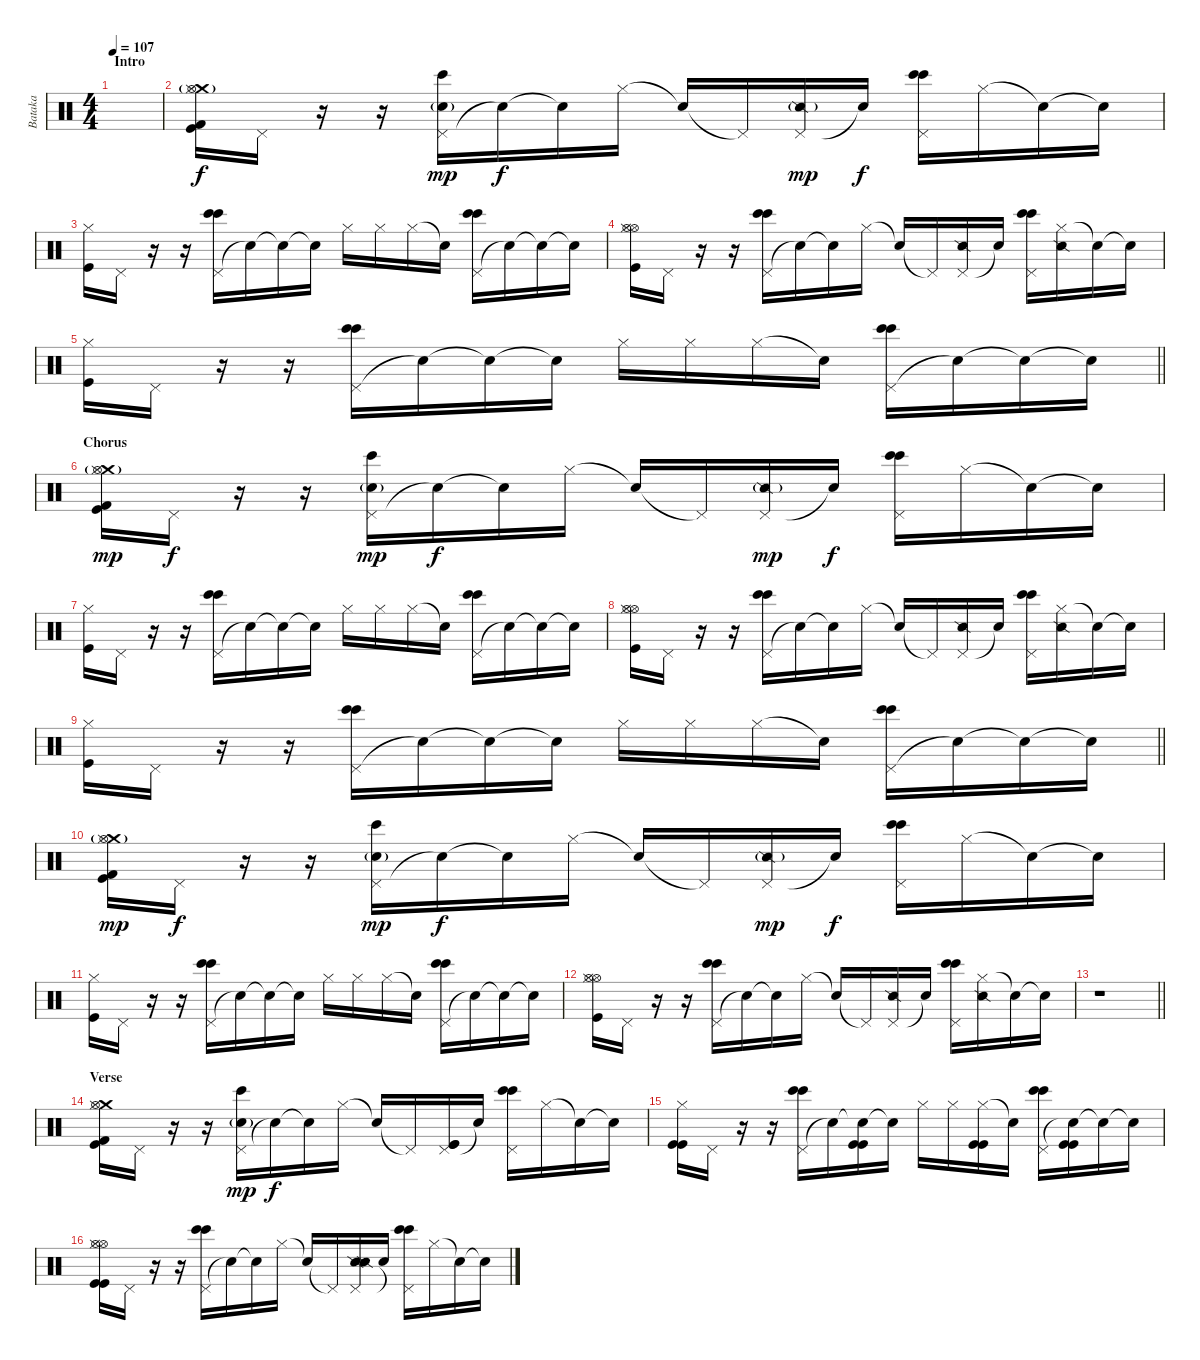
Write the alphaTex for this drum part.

\track ("Bataka" "Bataka") {instrument percussion}
\staff {score}
\articulation defaults
\ts (4 4)
\section ("" "Intro")
\tempo 107
\clef neutral
\ks c
|
("Crash medium (hit)"{g} "Hi-Hat (open)" "Hi-Hat (closed)" "Kick (hit)" "Kick (hit) 2").16 "Pedal Hi-Hat (hit)".16{dy f} r.16 r.16 ("Pedal Hi-Hat (hit)" "Bongo High (hit)" "Electric Snare (hit)"{g}).16{dy mp} "Snare (hit)"{t}.16{dy f} "Snare (hit)"{t}.16 "Hi-Hat (closed)".16 "Snare (hit)"{t}.16 "Pedal Hi-Hat (hit)"{t}.16 ("Pedal Hi-Hat (hit)" "Snare (side stick) 2"{g}).16{dy mp} "Snare (hit)"{t}.16{dy f} ("Pedal Hi-Hat (hit)" "Bongo High (hit)" "Bongo High (hit)").16 "Hi-Hat (closed)".16 "Snare (hit)"{t}.16 "Snare (hit)"{t}.16 |
("Hi-Hat (closed)" "Kick (hit)").16 "Pedal Hi-Hat (hit)".16 r.16 r.16 ("Pedal Hi-Hat (hit)" "Bongo High (hit)" "Bongo High (hit)").16 "Snare (hit)"{t}.16 "Snare (hit)"{t}.16 "Snare (hit)"{t}.16 "Hi-Hat (closed)".16 "Hi-Hat (closed)".16 "Hi-Hat (closed)".16 "Snare (hit)"{t}.16 ("Pedal Hi-Hat (hit)" "Bongo High (hit)" "Bongo High (hit)").16 "Snare (hit)"{t}.16 "Snare (hit)"{t}.16 "Snare (hit)"{t}.16 |
("Hi-Hat (open)" "Hi-Hat (open)" "Hi-Hat (closed)" "Kick (hit)").16 "Pedal Hi-Hat (hit)".16 r.16 r.16 ("Pedal Hi-Hat (hit)" "Bongo High (hit)" "Bongo High (hit)").16 "Snare (hit)"{t}.16 "Snare (hit)"{t}.16 "Hi-Hat (closed)".16 "Snare (hit)"{t}.16 "Pedal Hi-Hat (hit)"{t}.16 ("Pedal Hi-Hat (hit)" "Snare (side stick) 2").16 "Snare (hit)"{t}.16 ("Pedal Hi-Hat (hit)" "Bongo High (hit)" "Bongo High (hit)").16 ("Hi-Hat (closed)" "Snare (side stick) 2").16 "Snare (hit)"{t}.16 "Snare (hit)"{t}.16 |
\barLineRight lightlight
("Hi-Hat (closed)" "Kick (hit)").16 "Pedal Hi-Hat (hit)".16 r.16 r.16 ("Pedal Hi-Hat (hit)" "Bongo High (hit)" "Bongo High (hit)").16 "Snare (hit)"{t}.16 "Snare (hit)"{t}.16 "Snare (hit)"{t}.16 "Hi-Hat (closed)".16 "Hi-Hat (closed)".16 "Hi-Hat (closed)".16 "Snare (hit)"{t}.16 ("Pedal Hi-Hat (hit)" "Bongo High (hit)" "Bongo High (hit)").16 "Snare (hit)"{t}.16 "Snare (hit)"{t}.16 "Snare (hit)"{t}.16 |
\section ("" "Chorus")
("Crash medium (hit)"{g} "Hi-Hat (open)" "Hi-Hat (closed)" "Kick (hit)" "Kick (hit) 2").16{dy mp} "Pedal Hi-Hat (hit)".16{dy f} r.16 r.16 ("Pedal Hi-Hat (hit)" "Bongo High (hit)" "Electric Snare (hit)"{g}).16{dy mp} "Snare (hit)"{t}.16{dy f} "Snare (hit)"{t}.16 "Hi-Hat (closed)".16 "Snare (hit)"{t}.16 "Pedal Hi-Hat (hit)"{t}.16 ("Pedal Hi-Hat (hit)" "Snare (side stick) 2"{g}).16{dy mp} "Snare (hit)"{t}.16{dy f} ("Pedal Hi-Hat (hit)" "Bongo High (hit)" "Bongo High (hit)").16 "Hi-Hat (closed)".16 "Snare (hit)"{t}.16 "Snare (hit)"{t}.16 |
("Hi-Hat (closed)" "Kick (hit)").16 "Pedal Hi-Hat (hit)".16 r.16 r.16 ("Pedal Hi-Hat (hit)" "Bongo High (hit)" "Bongo High (hit)").16 "Snare (hit)"{t}.16 "Snare (hit)"{t}.16 "Snare (hit)"{t}.16 "Hi-Hat (closed)".16 "Hi-Hat (closed)".16 "Hi-Hat (closed)".16 "Snare (hit)"{t}.16 ("Pedal Hi-Hat (hit)" "Bongo High (hit)" "Bongo High (hit)").16 "Snare (hit)"{t}.16 "Snare (hit)"{t}.16 "Snare (hit)"{t}.16 |
("Hi-Hat (open)" "Hi-Hat (open)" "Hi-Hat (closed)" "Kick (hit)").16 "Pedal Hi-Hat (hit)".16 r.16 r.16 ("Pedal Hi-Hat (hit)" "Bongo High (hit)" "Bongo High (hit)").16 "Snare (hit)"{t}.16 "Snare (hit)"{t}.16 "Hi-Hat (closed)".16 "Snare (hit)"{t}.16 "Pedal Hi-Hat (hit)"{t}.16 ("Pedal Hi-Hat (hit)" "Snare (side stick) 2").16 "Snare (hit)"{t}.16 ("Pedal Hi-Hat (hit)" "Bongo High (hit)" "Bongo High (hit)").16 ("Hi-Hat (closed)" "Snare (side stick) 2").16 "Snare (hit)"{t}.16 "Snare (hit)"{t}.16 |
\barLineRight lightlight
("Hi-Hat (closed)" "Kick (hit)").16 "Pedal Hi-Hat (hit)".16 r.16 r.16 ("Pedal Hi-Hat (hit)" "Bongo High (hit)" "Bongo High (hit)").16 "Snare (hit)"{t}.16 "Snare (hit)"{t}.16 "Snare (hit)"{t}.16 "Hi-Hat (closed)".16 "Hi-Hat (closed)".16 "Hi-Hat (closed)".16 "Snare (hit)"{t}.16 ("Pedal Hi-Hat (hit)" "Bongo High (hit)" "Bongo High (hit)").16 "Snare (hit)"{t}.16 "Snare (hit)"{t}.16 "Snare (hit)"{t}.16 |
("Crash medium (hit)"{g} "Hi-Hat (open)" "Hi-Hat (closed)" "Kick (hit)" "Kick (hit) 2").16{dy mp} "Pedal Hi-Hat (hit)".16{dy f} r.16 r.16 ("Pedal Hi-Hat (hit)" "Bongo High (hit)" "Electric Snare (hit)"{g}).16{dy mp} "Snare (hit)"{t}.16{dy f} "Snare (hit)"{t}.16 "Hi-Hat (closed)".16 "Snare (hit)"{t}.16 "Pedal Hi-Hat (hit)"{t}.16 ("Pedal Hi-Hat (hit)" "Snare (side stick) 2"{g}).16{dy mp} "Snare (hit)"{t}.16{dy f} ("Pedal Hi-Hat (hit)" "Bongo High (hit)" "Bongo High (hit)").16 "Hi-Hat (closed)".16 "Snare (hit)"{t}.16 "Snare (hit)"{t}.16 |
("Hi-Hat (closed)" "Kick (hit)").16 "Pedal Hi-Hat (hit)".16 r.16 r.16 ("Pedal Hi-Hat (hit)" "Bongo High (hit)" "Bongo High (hit)").16 "Snare (hit)"{t}.16 "Snare (hit)"{t}.16 "Snare (hit)"{t}.16 "Hi-Hat (closed)".16 "Hi-Hat (closed)".16 "Hi-Hat (closed)".16 "Snare (hit)"{t}.16 ("Pedal Hi-Hat (hit)" "Bongo High (hit)" "Bongo High (hit)").16 "Snare (hit)"{t}.16 "Snare (hit)"{t}.16 "Snare (hit)"{t}.16 |
("Hi-Hat (open)" "Hi-Hat (open)" "Hi-Hat (closed)" "Kick (hit)").16 "Pedal Hi-Hat (hit)".16 r.16 r.16 ("Pedal Hi-Hat (hit)" "Bongo High (hit)" "Bongo High (hit)").16 "Snare (hit)"{t}.16 "Snare (hit)"{t}.16 "Hi-Hat (closed)".16 "Snare (hit)"{t}.16 "Pedal Hi-Hat (hit)"{t}.16 ("Pedal Hi-Hat (hit)" "Snare (side stick) 2").16 "Snare (hit)"{t}.16 ("Pedal Hi-Hat (hit)" "Bongo High (hit)" "Bongo High (hit)").16 ("Hi-Hat (closed)" "Snare (side stick) 2").16 "Snare (hit)"{t}.16 "Snare (hit)"{t}.16 |
\barLineRight lightlight
r.1 |
\section ("" "Verse")
("Crash medium (hit)" "Hi-Hat (open)" "Hi-Hat (closed)" "Kick (hit)" "Kick (hit) 2").16 "Pedal Hi-Hat (hit)".16 r.16 r.16 ("Pedal Hi-Hat (hit)" "Bongo High (hit)" "Electric Snare (hit)"{g}).16{dy mp} "Snare (hit)"{t}.16{dy f} "Snare (hit)"{t}.16 "Hi-Hat (closed)".16 "Snare (hit)"{t}.16 "Pedal Hi-Hat (hit)"{t}.16 ("Pedal Hi-Hat (hit)" "Kick (hit)" "Kick (hit)").16 "Snare (hit)"{t}.16 ("Pedal Hi-Hat (hit)" "Bongo High (hit)" "Bongo High (hit)").16 "Hi-Hat (closed)".16 "Snare (hit)"{t}.16 "Snare (hit)"{t}.16 |
("Hi-Hat (closed)" "Kick (hit)" "Kick (hit)").16 "Pedal Hi-Hat (hit)".16 r.16 r.16 ("Pedal Hi-Hat (hit)" "Bongo High (hit)" "Bongo High (hit)").16 "Snare (hit)"{t}.16 ("Snare (hit)"{t} "Kick (hit)" "Kick (hit)").16 "Snare (hit)"{t}.16 "Hi-Hat (closed)".16 "Hi-Hat (closed)".16 ("Hi-Hat (closed)" "Kick (hit)" "Kick (hit)").16 "Snare (hit)"{t}.16 ("Pedal Hi-Hat (hit)" "Bongo High (hit)" "Bongo High (hit)").16 ("Snare (hit)"{t} "Kick (hit)" "Kick (hit)").16 "Snare (hit)"{t}.16 "Snare (hit)"{t}.16 |
("Hi-Hat (open)" "Hi-Hat (open)" "Hi-Hat (closed)" "Kick (hit)" "Kick (hit)").16 "Pedal Hi-Hat (hit)".16 r.16 r.16 ("Pedal Hi-Hat (hit)" "Bongo High (hit)" "Bongo High (hit)").16 "Snare (hit)"{t}.16 "Snare (hit)"{t}.16 "Hi-Hat (closed)".16 "Snare (hit)"{t}.16 "Pedal Hi-Hat (hit)"{t}.16 ("Pedal Hi-Hat (hit)" "Snare (side stick) 2" "Snare (side stick) 2").16 "Snare (hit)"{t}.16 ("Pedal Hi-Hat (hit)" "Bongo High (hit)" "Bongo High (hit)").16 "Hi-Hat (closed)".16 "Snare (hit)"{t}.16 "Snare (hit)"{t}.16
